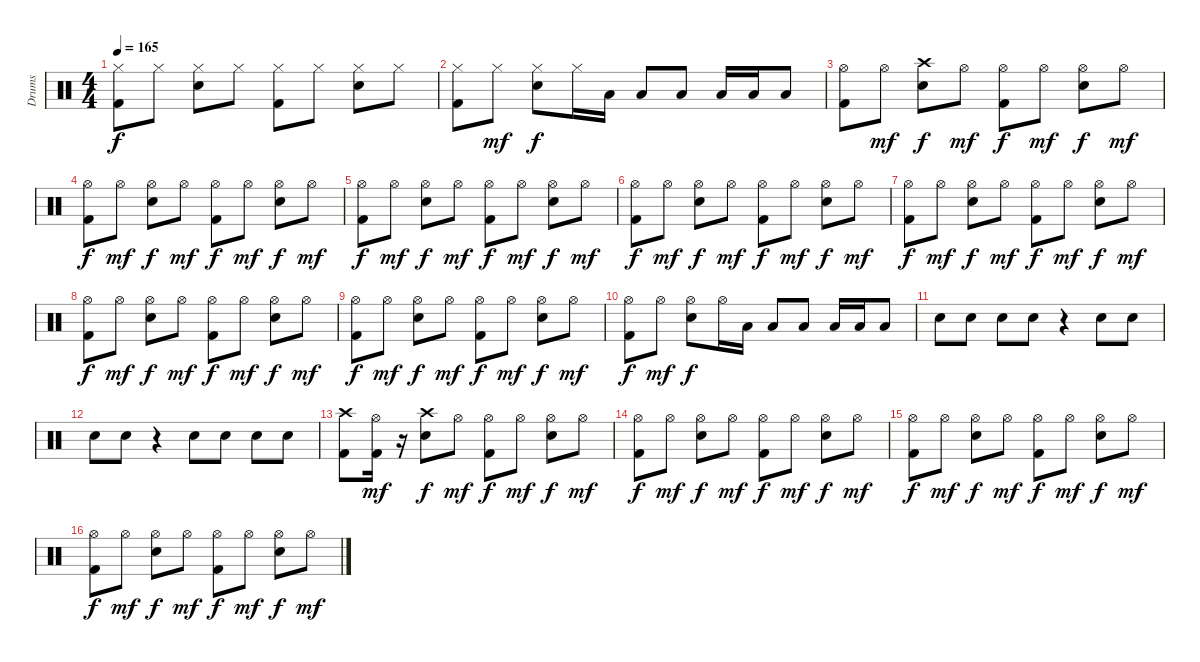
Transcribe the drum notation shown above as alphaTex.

\track ("Drums" "Drums") {instrument percussion}
\staff {score}
\articulation defaults
\ts (4 4)
\tempo 165
\clef neutral
\ks c
("Hi-Hat (closed)" "Kick (hit) 2").8{dy f} "Hi-Hat (closed)".8 ("Hi-Hat (closed)" "Electric Snare (hit)").8 "Hi-Hat (closed)".8 ("Hi-Hat (closed)" "Kick (hit) 2").8 "Hi-Hat (closed)".8 ("Hi-Hat (closed)" "Electric Snare (hit)").8 "Hi-Hat (closed)".8 |
("Hi-Hat (closed)" "Kick (hit) 2").8 "Hi-Hat (closed)".8{dy mf} ("Hi-Hat (closed)" "Electric Snare (hit)").8{dy f} "Hi-Hat (closed)".16 "Low Floor Tom (hit)".16 "Low Floor Tom (hit)".8 "Low Floor Tom (hit)".8 "Low Floor Tom (hit)".16 "Low Floor Tom (hit)".16 "Low Floor Tom (hit)".8 |
("Hi-Hat (open)" "Kick (hit) 2").8 "Hi-Hat (open)".8{dy mf} ("Crash high (hit)" "Electric Snare (hit)").8{dy f} "Hi-Hat (open)".8{dy mf} ("Hi-Hat (open)" "Kick (hit) 2").8{dy f} "Hi-Hat (open)".8{dy mf} ("Hi-Hat (open)" "Electric Snare (hit)").8{dy f} "Hi-Hat (open)".8{dy mf} |
("Hi-Hat (open)" "Kick (hit) 2").8{dy f} "Hi-Hat (open)".8{dy mf} ("Hi-Hat (open)" "Electric Snare (hit)").8{dy f} "Hi-Hat (open)".8{dy mf} ("Hi-Hat (open)" "Kick (hit) 2").8{dy f} "Hi-Hat (open)".8{dy mf} ("Hi-Hat (open)" "Electric Snare (hit)").8{dy f} "Hi-Hat (open)".8{dy mf} |
("Hi-Hat (open)" "Kick (hit) 2").8{dy f} "Hi-Hat (open)".8{dy mf} ("Hi-Hat (open)" "Electric Snare (hit)").8{dy f} "Hi-Hat (open)".8{dy mf} ("Hi-Hat (open)" "Kick (hit) 2").8{dy f} "Hi-Hat (open)".8{dy mf} ("Hi-Hat (open)" "Electric Snare (hit)").8{dy f} "Hi-Hat (open)".8{dy mf} |
("Hi-Hat (open)" "Kick (hit) 2").8{dy f} "Hi-Hat (open)".8{dy mf} ("Hi-Hat (open)" "Electric Snare (hit)").8{dy f} "Hi-Hat (open)".8{dy mf} ("Hi-Hat (open)" "Kick (hit) 2").8{dy f} "Hi-Hat (open)".8{dy mf} ("Hi-Hat (open)" "Electric Snare (hit)").8{dy f} "Hi-Hat (open)".8{dy mf} |
("Hi-Hat (open)" "Kick (hit) 2").8{dy f} "Hi-Hat (open)".8{dy mf} ("Hi-Hat (open)" "Electric Snare (hit)").8{dy f} "Hi-Hat (open)".8{dy mf} ("Hi-Hat (open)" "Kick (hit) 2").8{dy f} "Hi-Hat (open)".8{dy mf} ("Hi-Hat (open)" "Electric Snare (hit)").8{dy f} "Hi-Hat (open)".8{dy mf} |
("Hi-Hat (open)" "Kick (hit) 2").8{dy f} "Hi-Hat (open)".8{dy mf} ("Hi-Hat (open)" "Electric Snare (hit)").8{dy f} "Hi-Hat (open)".8{dy mf} ("Hi-Hat (open)" "Kick (hit) 2").8{dy f} "Hi-Hat (open)".8{dy mf} ("Hi-Hat (open)" "Electric Snare (hit)").8{dy f} "Hi-Hat (open)".8{dy mf} |
("Hi-Hat (open)" "Kick (hit) 2").8{dy f} "Hi-Hat (open)".8{dy mf} ("Hi-Hat (open)" "Electric Snare (hit)").8{dy f} "Hi-Hat (open)".8{dy mf} ("Hi-Hat (open)" "Kick (hit) 2").8{dy f} "Hi-Hat (open)".8{dy mf} ("Hi-Hat (open)" "Electric Snare (hit)").8{dy f} "Hi-Hat (open)".8{dy mf} |
("Hi-Hat (open)" "Kick (hit) 2").8{dy f} "Hi-Hat (open)".8{dy mf} ("Hi-Hat (open)" "Electric Snare (hit)").8{dy f} "Hi-Hat (open)".16 "Low Floor Tom (hit)".16 "Low Floor Tom (hit)".8 "Low Floor Tom (hit)".8 "Low Floor Tom (hit)".16 "Low Floor Tom (hit)".16 "Low Floor Tom (hit)".8 |
"Electric Snare (hit)".8 "Electric Snare (hit)".8 "Electric Snare (hit)".8 "Electric Snare (hit)".8 r.4 "Electric Snare (hit)".8 "Electric Snare (hit)".8 |
"Electric Snare (hit)".8 "Electric Snare (hit)".8 r.4 "Electric Snare (hit)".8 "Electric Snare (hit)".8 "Electric Snare (hit)".8 "Electric Snare (hit)".8 |
("Crash high (hit)" "Kick (hit) 2").8 ("Hi-Hat (open)" "Kick (hit) 2").16{dy mf} r.16 ("Crash high (hit)" "Electric Snare (hit)").8{dy f} "Hi-Hat (open)".8{dy mf} ("Hi-Hat (open)" "Kick (hit) 2").8{dy f} "Hi-Hat (open)".8{dy mf} ("Hi-Hat (open)" "Electric Snare (hit)").8{dy f} "Hi-Hat (open)".8{dy mf} |
("Hi-Hat (open)" "Kick (hit) 2").8{dy f} "Hi-Hat (open)".8{dy mf} ("Hi-Hat (open)" "Electric Snare (hit)").8{dy f} "Hi-Hat (open)".8{dy mf} ("Hi-Hat (open)" "Kick (hit) 2").8{dy f} "Hi-Hat (open)".8{dy mf} ("Hi-Hat (open)" "Electric Snare (hit)").8{dy f} "Hi-Hat (open)".8{dy mf} |
("Hi-Hat (open)" "Kick (hit) 2").8{dy f} "Hi-Hat (open)".8{dy mf} ("Hi-Hat (open)" "Electric Snare (hit)").8{dy f} "Hi-Hat (open)".8{dy mf} ("Hi-Hat (open)" "Kick (hit) 2").8{dy f} "Hi-Hat (open)".8{dy mf} ("Hi-Hat (open)" "Electric Snare (hit)").8{dy f} "Hi-Hat (open)".8{dy mf} |
("Hi-Hat (open)" "Kick (hit) 2").8{dy f} "Hi-Hat (open)".8{dy mf} ("Hi-Hat (open)" "Electric Snare (hit)").8{dy f} "Hi-Hat (open)".8{dy mf} ("Hi-Hat (open)" "Kick (hit) 2").8{dy f} "Hi-Hat (open)".8{dy mf} ("Hi-Hat (open)" "Electric Snare (hit)").8{dy f} "Hi-Hat (open)".8{dy mf}
